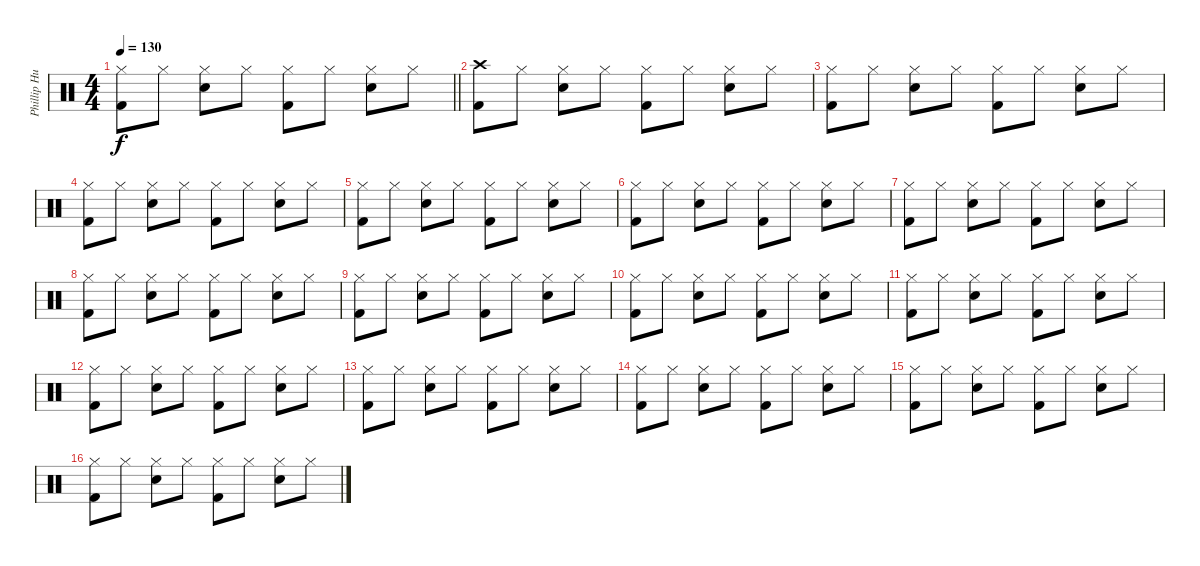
\track ("Phillip Hungh" "Phillip Hu") {instrument percussion}
\staff {score}
\articulation defaults
\ts (4 4)
\section ("" "")
\tempo 130
\clef neutral
\barLineRight lightlight
\ks c
("Hi-Hat (closed)" "Kick (hit) 2").8{dy f} "Hi-Hat (closed)".8 ("Hi-Hat (closed)" "Snare (hit) 2").8 "Hi-Hat (closed)".8 ("Hi-Hat (closed)" "Kick (hit) 2").8 "Hi-Hat (closed)".8 ("Hi-Hat (closed)" "Snare (hit) 2").8 "Hi-Hat (closed)".8 |
\section ("" "")
("Crash high (hit)" "Kick (hit) 2").8 "Hi-Hat (closed)".8 ("Hi-Hat (closed)" "Snare (hit) 2").8 "Hi-Hat (closed)".8 ("Hi-Hat (closed)" "Kick (hit) 2").8 "Hi-Hat (closed)".8 ("Hi-Hat (closed)" "Snare (hit) 2").8 "Hi-Hat (closed)".8 |
("Hi-Hat (closed)" "Kick (hit) 2").8 "Hi-Hat (closed)".8 ("Hi-Hat (closed)" "Snare (hit) 2").8 "Hi-Hat (closed)".8 ("Hi-Hat (closed)" "Kick (hit) 2").8 "Hi-Hat (closed)".8 ("Hi-Hat (closed)" "Snare (hit) 2").8 "Hi-Hat (closed)".8 |
("Hi-Hat (closed)" "Kick (hit) 2").8 "Hi-Hat (closed)".8 ("Hi-Hat (closed)" "Snare (hit) 2").8 "Hi-Hat (closed)".8 ("Hi-Hat (closed)" "Kick (hit) 2").8 "Hi-Hat (closed)".8 ("Hi-Hat (closed)" "Snare (hit) 2").8 "Hi-Hat (closed)".8 |
("Hi-Hat (closed)" "Kick (hit) 2").8 "Hi-Hat (closed)".8 ("Hi-Hat (closed)" "Snare (hit) 2").8 "Hi-Hat (closed)".8 ("Hi-Hat (closed)" "Kick (hit) 2").8 "Hi-Hat (closed)".8 ("Hi-Hat (closed)" "Snare (hit) 2").8 "Hi-Hat (closed)".8 |
("Hi-Hat (closed)" "Kick (hit) 2").8 "Hi-Hat (closed)".8 ("Hi-Hat (closed)" "Snare (hit) 2").8 "Hi-Hat (closed)".8 ("Hi-Hat (closed)" "Kick (hit) 2").8 "Hi-Hat (closed)".8 ("Hi-Hat (closed)" "Snare (hit) 2").8 "Hi-Hat (closed)".8 |
("Hi-Hat (closed)" "Kick (hit) 2").8 "Hi-Hat (closed)".8 ("Hi-Hat (closed)" "Snare (hit) 2").8 "Hi-Hat (closed)".8 ("Hi-Hat (closed)" "Kick (hit) 2").8 "Hi-Hat (closed)".8 ("Hi-Hat (closed)" "Snare (hit) 2").8 "Hi-Hat (closed)".8 |
("Hi-Hat (closed)" "Kick (hit) 2").8 "Hi-Hat (closed)".8 ("Hi-Hat (closed)" "Snare (hit) 2").8 "Hi-Hat (closed)".8 ("Hi-Hat (closed)" "Kick (hit) 2").8 "Hi-Hat (closed)".8 ("Hi-Hat (closed)" "Snare (hit) 2").8 "Hi-Hat (closed)".8 |
("Hi-Hat (closed)" "Kick (hit) 2").8 "Hi-Hat (closed)".8 ("Hi-Hat (closed)" "Snare (hit) 2").8 "Hi-Hat (closed)".8 ("Hi-Hat (closed)" "Kick (hit) 2").8 "Hi-Hat (closed)".8 ("Hi-Hat (closed)" "Snare (hit) 2").8 "Hi-Hat (closed)".8 |
("Hi-Hat (closed)" "Kick (hit) 2").8 "Hi-Hat (closed)".8 ("Hi-Hat (closed)" "Snare (hit) 2").8 "Hi-Hat (closed)".8 ("Hi-Hat (closed)" "Kick (hit) 2").8 "Hi-Hat (closed)".8 ("Hi-Hat (closed)" "Snare (hit) 2").8 "Hi-Hat (closed)".8 |
("Hi-Hat (closed)" "Kick (hit) 2").8 "Hi-Hat (closed)".8 ("Hi-Hat (closed)" "Snare (hit) 2").8 "Hi-Hat (closed)".8 ("Hi-Hat (closed)" "Kick (hit) 2").8 "Hi-Hat (closed)".8 ("Hi-Hat (closed)" "Snare (hit) 2").8 "Hi-Hat (closed)".8 |
("Hi-Hat (closed)" "Kick (hit) 2").8 "Hi-Hat (closed)".8 ("Hi-Hat (closed)" "Snare (hit) 2").8 "Hi-Hat (closed)".8 ("Hi-Hat (closed)" "Kick (hit) 2").8 "Hi-Hat (closed)".8 ("Hi-Hat (closed)" "Snare (hit) 2").8 "Hi-Hat (closed)".8 |
("Hi-Hat (closed)" "Kick (hit) 2").8 "Hi-Hat (closed)".8 ("Hi-Hat (closed)" "Snare (hit) 2").8 "Hi-Hat (closed)".8 ("Hi-Hat (closed)" "Kick (hit) 2").8 "Hi-Hat (closed)".8 ("Hi-Hat (closed)" "Snare (hit) 2").8 "Hi-Hat (closed)".8 |
("Hi-Hat (closed)" "Kick (hit) 2").8 "Hi-Hat (closed)".8 ("Hi-Hat (closed)" "Snare (hit) 2").8 "Hi-Hat (closed)".8 ("Hi-Hat (closed)" "Kick (hit) 2").8 "Hi-Hat (closed)".8 ("Hi-Hat (closed)" "Snare (hit) 2").8 "Hi-Hat (closed)".8 |
("Hi-Hat (closed)" "Kick (hit) 2").8 "Hi-Hat (closed)".8 ("Hi-Hat (closed)" "Snare (hit) 2").8 "Hi-Hat (closed)".8 ("Hi-Hat (closed)" "Kick (hit) 2").8 "Hi-Hat (closed)".8 ("Hi-Hat (closed)" "Snare (hit) 2").8 "Hi-Hat (closed)".8 |
("Hi-Hat (closed)" "Kick (hit) 2").8 "Hi-Hat (closed)".8 ("Hi-Hat (closed)" "Snare (hit) 2").8 "Hi-Hat (closed)".8 ("Hi-Hat (closed)" "Kick (hit) 2").8 "Hi-Hat (closed)".8 ("Hi-Hat (closed)" "Snare (hit) 2").8 "Hi-Hat (closed)".8
